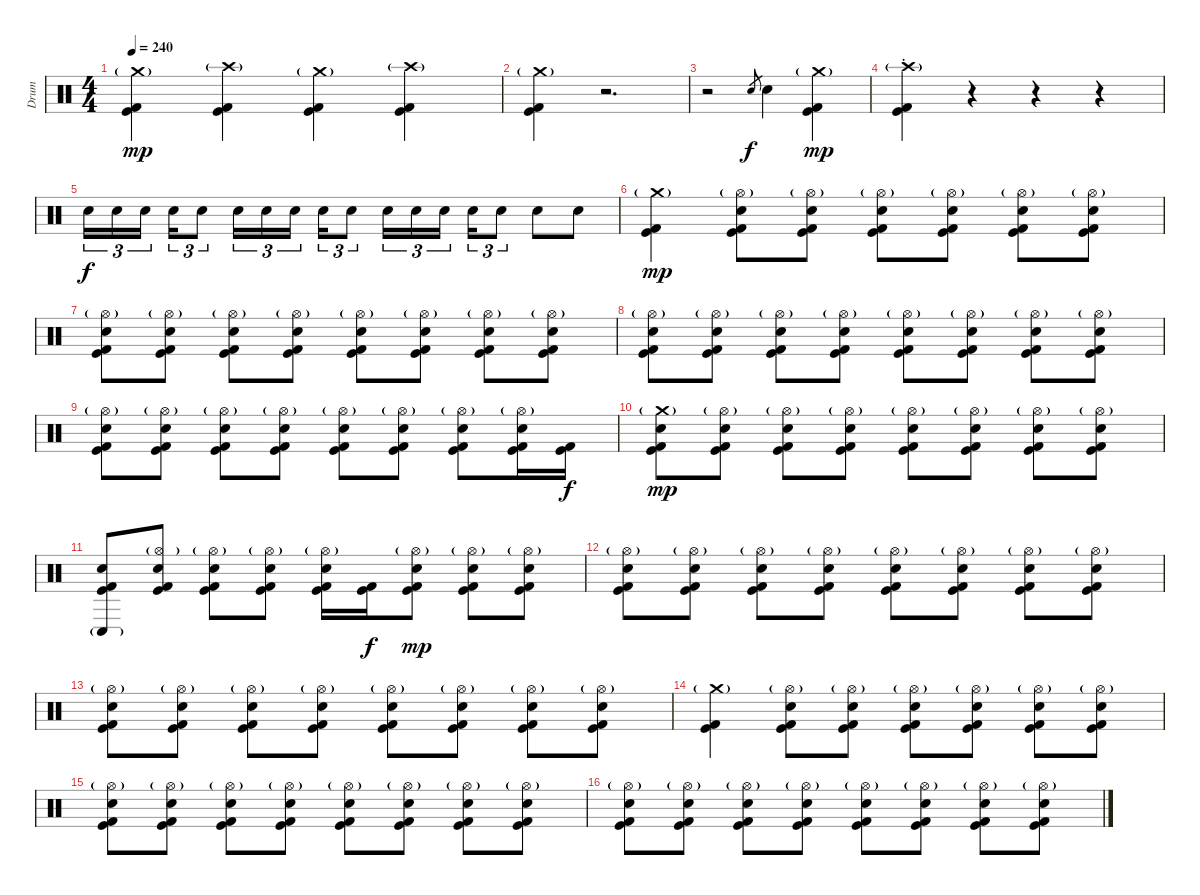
\track ("Drum" "Drum") {instrument percussion}
\staff {score}
\articulation defaults
\ts (4 4)
\tempo 240
\clef neutral
\ks c
("Crash medium (hit)"{g} "Kick (hit)" "Kick (hit) 2").4{dy mp} ("Crash high (hit)"{g} "Kick (hit)" "Kick (hit) 2").4 ("Crash medium (hit)"{g} "Kick (hit)" "Kick (hit) 2").4 ("Crash high (hit)"{g} "Kick (hit)" "Kick (hit) 2").4 |
("Crash medium (hit)"{g} "Kick (hit)" "Kick (hit) 2").4 r.2{d} |
r.2 "Electric Snare (hit)".8{gr dy f} "Electric Snare (hit)".4 ("Crash medium (hit)"{g} "Kick (hit)" "Kick (hit) 2").4{dy mp} |
("Crash high (hit)"{g st} "Kick (hit)" "Kick (hit) 2").4 r.4 r.4 r.4 |
"Electric Snare (hit)".16{tu (3 2) dy f} "Electric Snare (hit)".16{tu (3 2)} "Electric Snare (hit)".16{tu (3 2) beam splitsecondary} "Electric Snare (hit)".16{tu (3 2)} "Electric Snare (hit)".8{tu (3 2)} "Electric Snare (hit)".16{tu (3 2)} "Electric Snare (hit)".16{tu (3 2)} "Electric Snare (hit)".16{tu (3 2) beam splitsecondary} "Electric Snare (hit)".16{tu (3 2)} "Electric Snare (hit)".8{tu (3 2)} "Electric Snare (hit)".16{tu (3 2)} "Electric Snare (hit)".16{tu (3 2)} "Electric Snare (hit)".16{tu (3 2) beam splitsecondary} "Electric Snare (hit)".16{tu (3 2)} "Electric Snare (hit)".8{tu (3 2)} "Electric Snare (hit)".8 "Electric Snare (hit)".8 |
("Crash medium (hit)"{g} "Kick (hit)" "Kick (hit) 2").4{dy mp} ("Hi-Hat (open)"{g} "Electric Snare (hit)" "Kick (hit)" "Kick (hit) 2").8 ("Hi-Hat (open)"{g} "Electric Snare (hit)" "Kick (hit)" "Kick (hit) 2").8 ("Hi-Hat (open)"{g} "Electric Snare (hit)" "Kick (hit)" "Kick (hit) 2").8 ("Hi-Hat (open)"{g} "Electric Snare (hit)" "Kick (hit)" "Kick (hit) 2").8 ("Hi-Hat (open)"{g} "Electric Snare (hit)" "Kick (hit)" "Kick (hit) 2").8 ("Hi-Hat (open)"{g} "Electric Snare (hit)" "Kick (hit)" "Kick (hit) 2").8 |
("Hi-Hat (open)"{g} "Electric Snare (hit)" "Kick (hit)" "Kick (hit) 2").8 ("Hi-Hat (open)"{g} "Electric Snare (hit)" "Kick (hit)" "Kick (hit) 2").8 ("Hi-Hat (open)"{g} "Electric Snare (hit)" "Kick (hit)" "Kick (hit) 2").8 ("Hi-Hat (open)"{g} "Electric Snare (hit)" "Kick (hit)" "Kick (hit) 2").8 ("Hi-Hat (open)"{g} "Electric Snare (hit)" "Kick (hit)" "Kick (hit) 2").8 ("Hi-Hat (open)"{g} "Electric Snare (hit)" "Kick (hit)" "Kick (hit) 2").8 ("Hi-Hat (open)"{g} "Electric Snare (hit)" "Kick (hit)" "Kick (hit) 2").8 ("Hi-Hat (open)"{g} "Electric Snare (hit)" "Kick (hit)" "Kick (hit) 2").8 |
("Hi-Hat (open)"{g} "Electric Snare (hit)" "Kick (hit)" "Kick (hit) 2").8 ("Hi-Hat (open)"{g} "Electric Snare (hit)" "Kick (hit)" "Kick (hit) 2").8 ("Hi-Hat (open)"{g} "Electric Snare (hit)" "Kick (hit)" "Kick (hit) 2").8 ("Hi-Hat (open)"{g} "Electric Snare (hit)" "Kick (hit)" "Kick (hit) 2").8 ("Hi-Hat (open)"{g} "Electric Snare (hit)" "Kick (hit)" "Kick (hit) 2").8 ("Hi-Hat (open)"{g} "Electric Snare (hit)" "Kick (hit)" "Kick (hit) 2").8 ("Hi-Hat (open)"{g} "Electric Snare (hit)" "Kick (hit)" "Kick (hit) 2").8 ("Hi-Hat (open)"{g} "Electric Snare (hit)" "Kick (hit)" "Kick (hit) 2").8 |
("Hi-Hat (open)"{g} "Electric Snare (hit)" "Kick (hit)" "Kick (hit) 2").8 ("Hi-Hat (open)"{g} "Electric Snare (hit)" "Kick (hit)" "Kick (hit) 2").8 ("Hi-Hat (open)"{g} "Electric Snare (hit)" "Kick (hit)" "Kick (hit) 2").8 ("Hi-Hat (open)"{g} "Electric Snare (hit)" "Kick (hit)" "Kick (hit) 2").8 ("Hi-Hat (open)"{g} "Electric Snare (hit)" "Kick (hit)" "Kick (hit) 2").8 ("Hi-Hat (open)"{g} "Electric Snare (hit)" "Kick (hit)" "Kick (hit) 2").8 ("Hi-Hat (open)"{g} "Electric Snare (hit)" "Kick (hit)" "Kick (hit) 2").8 ("Hi-Hat (open)"{g} "Electric Snare (hit)" "Kick (hit)" "Kick (hit) 2").16 ("Kick (hit)" "Kick (hit) 2").16{dy f} |
("Crash medium (hit)"{g} "Electric Snare (hit)" "Kick (hit)" "Kick (hit) 2").8{dy mp} ("Hi-Hat (open)"{g} "Electric Snare (hit)" "Kick (hit)" "Kick (hit) 2").8 ("Hi-Hat (open)"{g} "Electric Snare (hit)" "Kick (hit)" "Kick (hit) 2").8 ("Hi-Hat (open)"{g} "Electric Snare (hit)" "Kick (hit)" "Kick (hit) 2").8 ("Hi-Hat (open)"{g} "Electric Snare (hit)" "Kick (hit)" "Kick (hit) 2").8 ("Hi-Hat (open)"{g} "Electric Snare (hit)" "Kick (hit)" "Kick (hit) 2").8 ("Hi-Hat (open)"{g} "Electric Snare (hit)" "Kick (hit)" "Kick (hit) 2").8 ("Hi-Hat (open)"{g} "Electric Snare (hit)" "Kick (hit)" "Kick (hit) 2").8 |
("Conga low (hit)"{g} "Electric Snare (hit)" "Kick (hit)" "Kick (hit) 2").8 ("Hi-Hat (open)"{g} "Electric Snare (hit)" "Kick (hit)" "Kick (hit) 2").8 ("Hi-Hat (open)"{g} "Electric Snare (hit)" "Kick (hit)" "Kick (hit) 2").8 ("Hi-Hat (open)"{g} "Electric Snare (hit)" "Kick (hit)" "Kick (hit) 2").8 ("Hi-Hat (open)"{g} "Electric Snare (hit)" "Kick (hit)" "Kick (hit) 2").16 ("Kick (hit)" "Kick (hit) 2").16{dy f} ("Hi-Hat (open)"{g} "Electric Snare (hit)" "Kick (hit)" "Kick (hit) 2").8{dy mp} ("Hi-Hat (open)"{g} "Electric Snare (hit)" "Kick (hit)" "Kick (hit) 2").8 ("Hi-Hat (open)"{g} "Electric Snare (hit)" "Kick (hit)" "Kick (hit) 2").8 |
("Hi-Hat (open)"{g} "Electric Snare (hit)" "Kick (hit)" "Kick (hit) 2").8 ("Hi-Hat (open)"{g} "Electric Snare (hit)" "Kick (hit)" "Kick (hit) 2").8 ("Hi-Hat (open)"{g} "Electric Snare (hit)" "Kick (hit)" "Kick (hit) 2").8 ("Hi-Hat (open)"{g} "Electric Snare (hit)" "Kick (hit)" "Kick (hit) 2").8 ("Hi-Hat (open)"{g} "Electric Snare (hit)" "Kick (hit)" "Kick (hit) 2").8 ("Hi-Hat (open)"{g} "Electric Snare (hit)" "Kick (hit)" "Kick (hit) 2").8 ("Hi-Hat (open)"{g} "Electric Snare (hit)" "Kick (hit)" "Kick (hit) 2").8 ("Hi-Hat (open)"{g} "Electric Snare (hit)" "Kick (hit)" "Kick (hit) 2").8 |
("Hi-Hat (open)"{g} "Electric Snare (hit)" "Kick (hit)" "Kick (hit) 2").8 ("Hi-Hat (open)"{g} "Electric Snare (hit)" "Kick (hit)" "Kick (hit) 2").8 ("Hi-Hat (open)"{g} "Electric Snare (hit)" "Kick (hit)" "Kick (hit) 2").8 ("Hi-Hat (open)"{g} "Electric Snare (hit)" "Kick (hit)" "Kick (hit) 2").8 ("Hi-Hat (open)"{g} "Electric Snare (hit)" "Kick (hit)" "Kick (hit) 2").8 ("Hi-Hat (open)"{g} "Electric Snare (hit)" "Kick (hit)" "Kick (hit) 2").8 ("Hi-Hat (open)"{g} "Electric Snare (hit)" "Kick (hit)" "Kick (hit) 2").8 ("Hi-Hat (open)"{g} "Electric Snare (hit)" "Kick (hit)" "Kick (hit) 2").8 |
("Crash medium (hit)"{g} "Kick (hit)" "Kick (hit) 2").4 ("Hi-Hat (open)"{g} "Electric Snare (hit)" "Kick (hit)" "Kick (hit) 2").8 ("Hi-Hat (open)"{g} "Electric Snare (hit)" "Kick (hit)" "Kick (hit) 2").8 ("Hi-Hat (open)"{g} "Electric Snare (hit)" "Kick (hit)" "Kick (hit) 2").8 ("Hi-Hat (open)"{g} "Electric Snare (hit)" "Kick (hit)" "Kick (hit) 2").8 ("Hi-Hat (open)"{g} "Electric Snare (hit)" "Kick (hit)" "Kick (hit) 2").8 ("Hi-Hat (open)"{g} "Electric Snare (hit)" "Kick (hit)" "Kick (hit) 2").8 |
("Hi-Hat (open)"{g} "Electric Snare (hit)" "Kick (hit)" "Kick (hit) 2").8 ("Hi-Hat (open)"{g} "Electric Snare (hit)" "Kick (hit)" "Kick (hit) 2").8 ("Hi-Hat (open)"{g} "Electric Snare (hit)" "Kick (hit)" "Kick (hit) 2").8 ("Hi-Hat (open)"{g} "Electric Snare (hit)" "Kick (hit)" "Kick (hit) 2").8 ("Hi-Hat (open)"{g} "Electric Snare (hit)" "Kick (hit)" "Kick (hit) 2").8 ("Hi-Hat (open)"{g} "Electric Snare (hit)" "Kick (hit)" "Kick (hit) 2").8 ("Hi-Hat (open)"{g} "Electric Snare (hit)" "Kick (hit)" "Kick (hit) 2").8 ("Hi-Hat (open)"{g} "Electric Snare (hit)" "Kick (hit)" "Kick (hit) 2").8 |
("Hi-Hat (open)"{g} "Electric Snare (hit)" "Kick (hit)" "Kick (hit) 2").8 ("Hi-Hat (open)"{g} "Electric Snare (hit)" "Kick (hit)" "Kick (hit) 2").8 ("Hi-Hat (open)"{g} "Electric Snare (hit)" "Kick (hit)" "Kick (hit) 2").8 ("Hi-Hat (open)"{g} "Electric Snare (hit)" "Kick (hit)" "Kick (hit) 2").8 ("Hi-Hat (open)"{g} "Electric Snare (hit)" "Kick (hit)" "Kick (hit) 2").8 ("Hi-Hat (open)"{g} "Electric Snare (hit)" "Kick (hit)" "Kick (hit) 2").8 ("Hi-Hat (open)"{g} "Electric Snare (hit)" "Kick (hit)" "Kick (hit) 2").8 ("Hi-Hat (open)"{g} "Electric Snare (hit)" "Kick (hit)" "Kick (hit) 2").8
